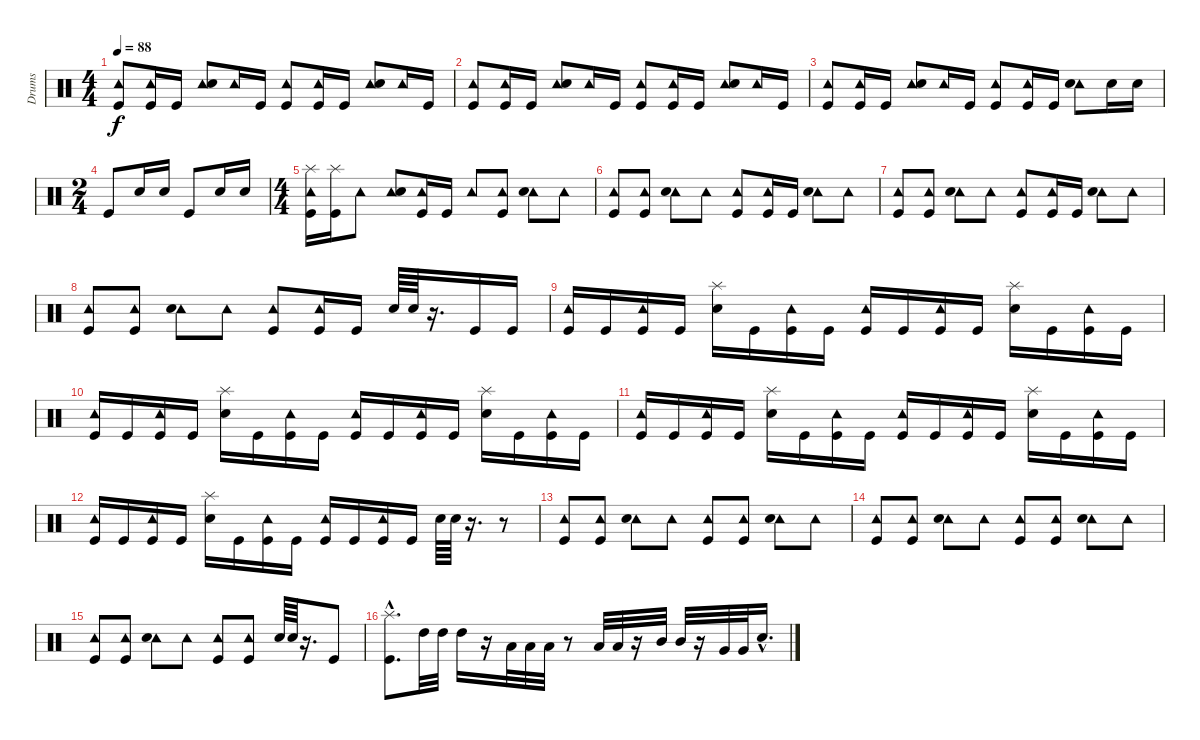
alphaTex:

\track ("Drums" "Drums") {instrument percussion}
\staff {score}
\articulation defaults
\ts (4 4)
\tempo 88
\clef neutral
\ks c
("Tambourine (hit)" "Kick (hit)").8{dy f} ("Tambourine (hit)" "Kick (hit)").16 "Kick (hit)".16 ("Tambourine (hit)" "Snare (hit) 2").8 "Tambourine (hit)".16 "Kick (hit)".16 ("Tambourine (hit)" "Kick (hit)").8 ("Tambourine (hit)" "Kick (hit)").16 "Kick (hit)".16 ("Tambourine (hit)" "Snare (hit) 2").8 "Tambourine (hit)".16 "Kick (hit)".16 |
("Tambourine (hit)" "Kick (hit)").8 ("Tambourine (hit)" "Kick (hit)").16 "Kick (hit)".16 ("Tambourine (hit)" "Snare (hit) 2").8 "Tambourine (hit)".16 "Kick (hit)".16 ("Tambourine (hit)" "Kick (hit)").8 ("Tambourine (hit)" "Kick (hit)").16 "Kick (hit)".16 ("Tambourine (hit)" "Snare (hit) 2").8 "Tambourine (hit)".16 "Kick (hit)".16 |
("Tambourine (hit)" "Kick (hit)").8 ("Tambourine (hit)" "Kick (hit)").16 "Kick (hit)".16 ("Tambourine (hit)" "Snare (hit) 2").8 "Tambourine (hit)".16 "Kick (hit)".16 ("Tambourine (hit)" "Kick (hit)").8 ("Tambourine (hit)" "Kick (hit)").16 "Kick (hit)".16 ("Tambourine (hit)" "Snare (hit) 2").8 "Snare (hit) 2".16 "Snare (hit) 2".16 |
\ts (2 4)
"Kick (hit)".8 "Snare (hit) 2".16 "Snare (hit) 2".16 "Kick (hit)".8 "Snare (hit) 2".16 "Snare (hit) 2".16 |
\ts (4 4)
("Tambourine (hit)" "Kick (hit)" "Splash (hit)").16 ("Kick (hit)" "Splash (hit)").16 "Tambourine (hit)".8 ("Tambourine (hit)" "Snare (hit) 2").8 ("Tambourine (hit)" "Kick (hit)").16 "Kick (hit)".16 "Tambourine (hit)".8 ("Tambourine (hit)" "Kick (hit)").8 ("Tambourine (hit)" "Snare (hit) 2").8 "Tambourine (hit)".8 |
("Tambourine (hit)" "Kick (hit)").8 ("Tambourine (hit)" "Kick (hit)").8 ("Tambourine (hit)" "Snare (hit) 2").8 "Tambourine (hit)".8 ("Tambourine (hit)" "Kick (hit)").8 ("Tambourine (hit)" "Kick (hit)").16 "Kick (hit)".16 ("Tambourine (hit)" "Snare (hit) 2").8 "Tambourine (hit)".8 |
("Tambourine (hit)" "Kick (hit)").8 ("Tambourine (hit)" "Kick (hit)").8 ("Tambourine (hit)" "Snare (hit) 2").8 "Tambourine (hit)".8 ("Tambourine (hit)" "Kick (hit)").8 ("Tambourine (hit)" "Kick (hit)").16 "Kick (hit)".16 ("Tambourine (hit)" "Snare (hit) 2").8 "Tambourine (hit)".8 |
("Tambourine (hit)" "Kick (hit)").8 ("Tambourine (hit)" "Kick (hit)").8 ("Tambourine (hit)" "Snare (hit) 2").8 "Tambourine (hit)".8 ("Tambourine (hit)" "Kick (hit)").8 ("Tambourine (hit)" "Kick (hit)").16 "Kick (hit)".16 "Snare (hit) 2".64 "Snare (hit) 2".64 r.16{d} "Kick (hit)".16 "Kick (hit)".16 |
("Tambourine (hit)" "Kick (hit)").16 "Kick (hit)".16 ("Tambourine (hit)" "Kick (hit)").16 "Kick (hit)".16 ("Splash (hit)" "Snare (hit) 2").16 "Kick (hit)".16 ("Tambourine (hit)" "Kick (hit)").16 "Kick (hit)".16 ("Tambourine (hit)" "Kick (hit)").16 "Kick (hit)".16 ("Tambourine (hit)" "Kick (hit)").16 "Kick (hit)".16 ("Splash (hit)" "Snare (hit) 2").16 "Kick (hit)".16 ("Tambourine (hit)" "Kick (hit)").16 "Kick (hit)".16 |
("Tambourine (hit)" "Kick (hit)").16 "Kick (hit)".16 ("Tambourine (hit)" "Kick (hit)").16 "Kick (hit)".16 ("Splash (hit)" "Snare (hit) 2").16 "Kick (hit)".16 ("Tambourine (hit)" "Kick (hit)").16 "Kick (hit)".16 ("Tambourine (hit)" "Kick (hit)").16 "Kick (hit)".16 ("Tambourine (hit)" "Kick (hit)").16 "Kick (hit)".16 ("Splash (hit)" "Snare (hit) 2").16 "Kick (hit)".16 ("Tambourine (hit)" "Kick (hit)").16 "Kick (hit)".16 |
("Tambourine (hit)" "Kick (hit)").16 "Kick (hit)".16 ("Tambourine (hit)" "Kick (hit)").16 "Kick (hit)".16 ("Splash (hit)" "Snare (hit) 2").16 "Kick (hit)".16 ("Tambourine (hit)" "Kick (hit)").16 "Kick (hit)".16 ("Tambourine (hit)" "Kick (hit)").16 "Kick (hit)".16 ("Tambourine (hit)" "Kick (hit)").16 "Kick (hit)".16 ("Splash (hit)" "Snare (hit) 2").16 "Kick (hit)".16 ("Tambourine (hit)" "Kick (hit)").16 "Kick (hit)".16 |
("Tambourine (hit)" "Kick (hit)").16 "Kick (hit)".16 ("Tambourine (hit)" "Kick (hit)").16 "Kick (hit)".16 ("Splash (hit)" "Snare (hit) 2").16 "Kick (hit)".16 ("Tambourine (hit)" "Kick (hit)").16 "Kick (hit)".16 ("Tambourine (hit)" "Kick (hit)").16 "Kick (hit)".16 ("Tambourine (hit)" "Kick (hit)").16 "Kick (hit)".16 "Snare (hit) 2".64 "Snare (hit) 2".64 r.16{d} r.8 |
("Tambourine (hit)" "Kick (hit)").8 ("Tambourine (hit)" "Kick (hit)").8 ("Tambourine (hit)" "Snare (hit) 2").8 "Tambourine (hit)".8 ("Tambourine (hit)" "Kick (hit)").8 ("Tambourine (hit)" "Kick (hit)").8 ("Tambourine (hit)" "Snare (hit) 2").8 "Tambourine (hit)".8 |
("Tambourine (hit)" "Kick (hit)").8 ("Tambourine (hit)" "Kick (hit)").8 ("Tambourine (hit)" "Snare (hit) 2").8 "Tambourine (hit)".8 ("Tambourine (hit)" "Kick (hit)").8 ("Tambourine (hit)" "Kick (hit)").8 ("Tambourine (hit)" "Snare (hit) 2").8 "Tambourine (hit)".8 |
("Tambourine (hit)" "Kick (hit)").8 ("Tambourine (hit)" "Kick (hit)").8 ("Tambourine (hit)" "Snare (hit) 2").8 "Tambourine (hit)".8 ("Tambourine (hit)" "Kick (hit)").8 ("Tambourine (hit)" "Kick (hit)").8 "Snare (hit) 2".64 "Snare (hit) 2".64 r.16{d} "Kick (hit)".8 |
("Kick (hit)"{hac} "Splash (hit)"{hac}).8{d} "High Tom (hit)".32 "High Tom (hit)".32 "High Tom (hit)".16 r.16 "Low Tom (hit)".32 "Low Tom (hit)".32 "Low Tom (hit)".32 r.8 "Low Tom (hit)".32 "Low Tom (hit)".32 r.16 "Mid Tom (hit)".32 "Mid Tom (hit)".32 r.16 "Very Low Tom (hit)".32 "Very Low Tom (hit)".32 "Snare (hit) 2"{hac}.16{d}
